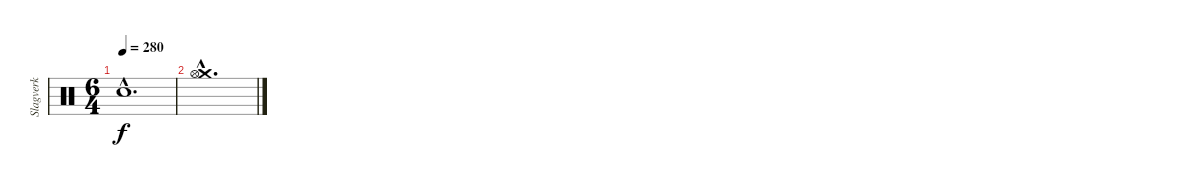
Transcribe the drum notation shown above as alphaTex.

\track ("Slagverk" "Slagverk") {instrument percussion}
\staff {score}
\articulation defaults
\ts (6 4)
\tempo 280
\clef neutral
\ks c "Snare (hit) 2"{hac}.1{d dy f}
|
("Crash medium (hit)"{hac} "Hi-Hat (open)"{hac}).1{d}
